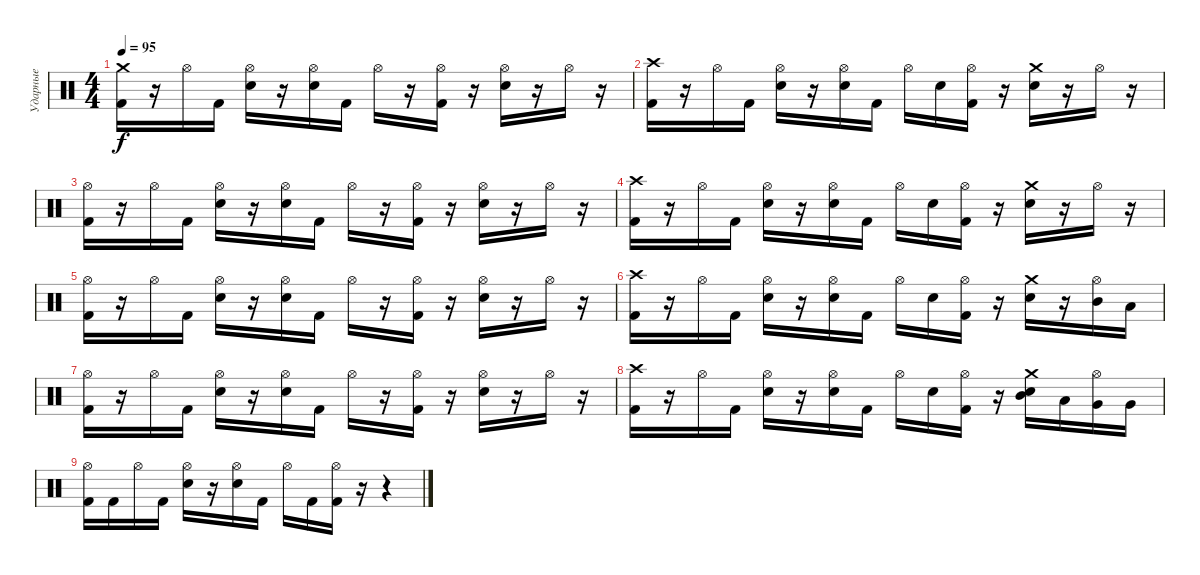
\track ("Ударные" "Ударные") {instrument percussion}
\staff {score}
\articulation defaults
\ts (4 4)
\tempo 95
\clef neutral
\ks c
("Crash medium (hit)" "Kick (hit) 2").16{dy f} r.16 "Hi-Hat (open)".16 "Kick (hit) 2".16 ("Hi-Hat (open)" "Snare (hit) 2").16 r.16 ("Hi-Hat (open)" "Snare (hit) 2").16 "Kick (hit) 2".16 "Hi-Hat (open)".16 r.16 ("Hi-Hat (open)" "Kick (hit) 2").16 r.16 ("Hi-Hat (open)" "Snare (hit) 2").16 r.16 "Hi-Hat (open)".16 r.16 |
("Crash high (hit)" "Kick (hit) 2").16 r.16 "Hi-Hat (open)".16 "Kick (hit) 2".16 ("Hi-Hat (open)" "Snare (hit) 2").16 r.16 ("Hi-Hat (open)" "Snare (hit) 2").16 "Kick (hit) 2".16 "Hi-Hat (open)".16 "Snare (hit) 2".16 ("Hi-Hat (open)" "Kick (hit) 2").16 r.16 ("Crash medium (hit)" "Snare (hit) 2").16 r.16 "Hi-Hat (open)".16 r.16 |
("Hi-Hat (open)" "Kick (hit) 2").16 r.16 "Hi-Hat (open)".16 "Kick (hit) 2".16 ("Hi-Hat (open)" "Snare (hit) 2").16 r.16 ("Hi-Hat (open)" "Snare (hit) 2").16 "Kick (hit) 2".16 "Hi-Hat (open)".16 r.16 ("Hi-Hat (open)" "Kick (hit) 2").16 r.16 ("Hi-Hat (open)" "Snare (hit) 2").16 r.16 "Hi-Hat (open)".16 r.16 |
("Crash high (hit)" "Kick (hit) 2").16 r.16 "Hi-Hat (open)".16 "Kick (hit) 2".16 ("Hi-Hat (open)" "Snare (hit) 2").16 r.16 ("Hi-Hat (open)" "Snare (hit) 2").16 "Kick (hit) 2".16 "Hi-Hat (open)".16 "Snare (hit) 2".16 ("Hi-Hat (open)" "Kick (hit) 2").16 r.16 ("Crash medium (hit)" "Snare (hit) 2").16 r.16 "Hi-Hat (open)".16 r.16 |
("Hi-Hat (open)" "Kick (hit) 2").16 r.16 "Hi-Hat (open)".16 "Kick (hit) 2".16 ("Hi-Hat (open)" "Snare (hit) 2").16 r.16 ("Hi-Hat (open)" "Snare (hit) 2").16 "Kick (hit) 2".16 "Hi-Hat (open)".16 r.16 ("Hi-Hat (open)" "Kick (hit) 2").16 r.16 ("Hi-Hat (open)" "Snare (hit) 2").16 r.16 "Hi-Hat (open)".16 r.16 |
("Crash high (hit)" "Kick (hit) 2").16 r.16 "Hi-Hat (open)".16 "Kick (hit) 2".16 ("Hi-Hat (open)" "Snare (hit) 2").16 r.16 ("Hi-Hat (open)" "Snare (hit) 2").16 "Kick (hit) 2".16 "Hi-Hat (open)".16 "Snare (hit) 2".16 ("Hi-Hat (open)" "Kick (hit) 2").16 r.16 ("Crash medium (hit)" "Snare (hit) 2").16 r.16 ("Hi-Hat (open)" "Mid Tom (hit)").16 "Low Tom (hit)".16 |
("Hi-Hat (open)" "Kick (hit) 2").16 r.16 "Hi-Hat (open)".16 "Kick (hit) 2".16 ("Hi-Hat (open)" "Snare (hit) 2").16 r.16 ("Hi-Hat (open)" "Snare (hit) 2").16 "Kick (hit) 2".16 "Hi-Hat (open)".16 r.16 ("Hi-Hat (open)" "Kick (hit) 2").16 r.16 ("Hi-Hat (open)" "Snare (hit) 2").16 r.16 "Hi-Hat (open)".16 r.16 |
("Crash high (hit)" "Kick (hit) 2").16 r.16 "Hi-Hat (open)".16 "Kick (hit) 2".16 ("Hi-Hat (open)" "Snare (hit) 2").16 r.16 ("Hi-Hat (open)" "Snare (hit) 2").16 "Kick (hit) 2".16 "Hi-Hat (open)".16 "Snare (hit) 2".16 ("Hi-Hat (open)" "Kick (hit) 2").16 r.16 ("Crash medium (hit)" "Mid Tom (hit)" "Snare (hit) 2").16 "Low Tom (hit)".16 ("Hi-Hat (open)" "Very Low Tom (hit)").16 "Very Low Tom (hit)".16 |
("Hi-Hat (open)" "Kick (hit) 2").16 "Kick (hit) 2".16 "Hi-Hat (open)".16 "Kick (hit) 2".16 ("Hi-Hat (open)" "Snare (hit) 2").16 r.16 ("Hi-Hat (open)" "Snare (hit) 2").16 "Kick (hit) 2".16 "Hi-Hat (open)".16 "Kick (hit) 2".16 ("Hi-Hat (open)" "Kick (hit) 2").16 r.16 r.4
